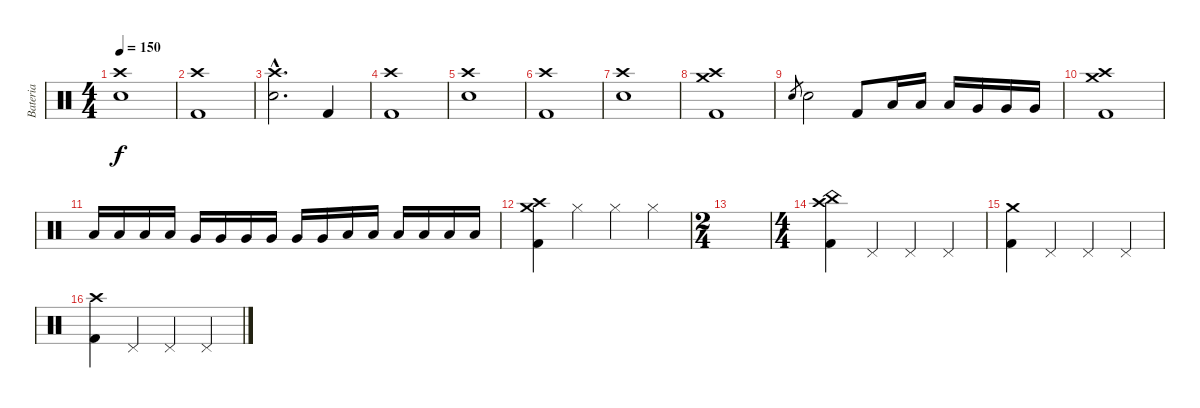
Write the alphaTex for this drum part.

\track ("Bateria" "Bateria") {instrument percussion}
\staff {score}
\articulation defaults
\ts (4 4)
\tempo 150
\clef neutral
\ks c
("Crash high (hit)" "Snare (hit) 2").1{dy f} |
("Crash high (hit)" "Kick (hit) 2").1 |
("Crash high (hit)"{hac} "Snare (hit) 2"{hac}).2{d} "Kick (hit) 2".4 |
("Crash high (hit)" "Kick (hit) 2").1 |
("Crash high (hit)" "Snare (hit) 2").1 |
("Crash high (hit)" "Kick (hit) 2").1 |
("Crash high (hit)" "Snare (hit) 2").1 |
("Crash medium (hit)" "Crash high (hit)" "Kick (hit) 2").1 |
"Snare (hit) 2".8{gr} "Snare (hit) 2".2 "Kick (hit) 2".8 "Low Tom (hit)".16 "Low Tom (hit)".16 "Low Tom (hit)".16 "Very Low Tom (hit)".16 "Very Low Tom (hit)".16 "Very Low Tom (hit)".16 |
("Crash medium (hit)" "Crash high (hit)" "Kick (hit) 2").1 |
"Low Tom (hit)".16 "Low Tom (hit)".16 "Low Tom (hit)".16 "Low Tom (hit)".16 "Very Low Tom (hit)".16 "Very Low Tom (hit)".16 "Very Low Tom (hit)".16 "Very Low Tom (hit)".16 "Very Low Tom (hit)".16 "Very Low Tom (hit)".16 "Low Floor Tom (hit)".16 "Low Floor Tom (hit)".16 "Low Floor Tom (hit)".16 "Low Floor Tom (hit)".16 "Low Tom (hit)".16 "Low Tom (hit)".16 |
("Crash high (hit)" "Crash medium (hit)" "Kick (hit) 2").4 "Hi-Hat (closed)".4 "Hi-Hat (closed)".4 "Hi-Hat (closed)".4 |
\ts (2 4)
|
\ts (4 4)
("China (hit)" "Crash high (hit)" "Kick (hit) 2").4 "Pedal Hi-Hat (hit)".4 "Pedal Hi-Hat (hit)".4 "Pedal Hi-Hat (hit)".4 |
("Crash medium (hit)" "Kick (hit) 2").4 "Pedal Hi-Hat (hit)".4 "Pedal Hi-Hat (hit)".4 "Pedal Hi-Hat (hit)".4 |
("Crash high (hit)" "Kick (hit) 2").4 "Pedal Hi-Hat (hit)".4 "Pedal Hi-Hat (hit)".4 "Pedal Hi-Hat (hit)".4
